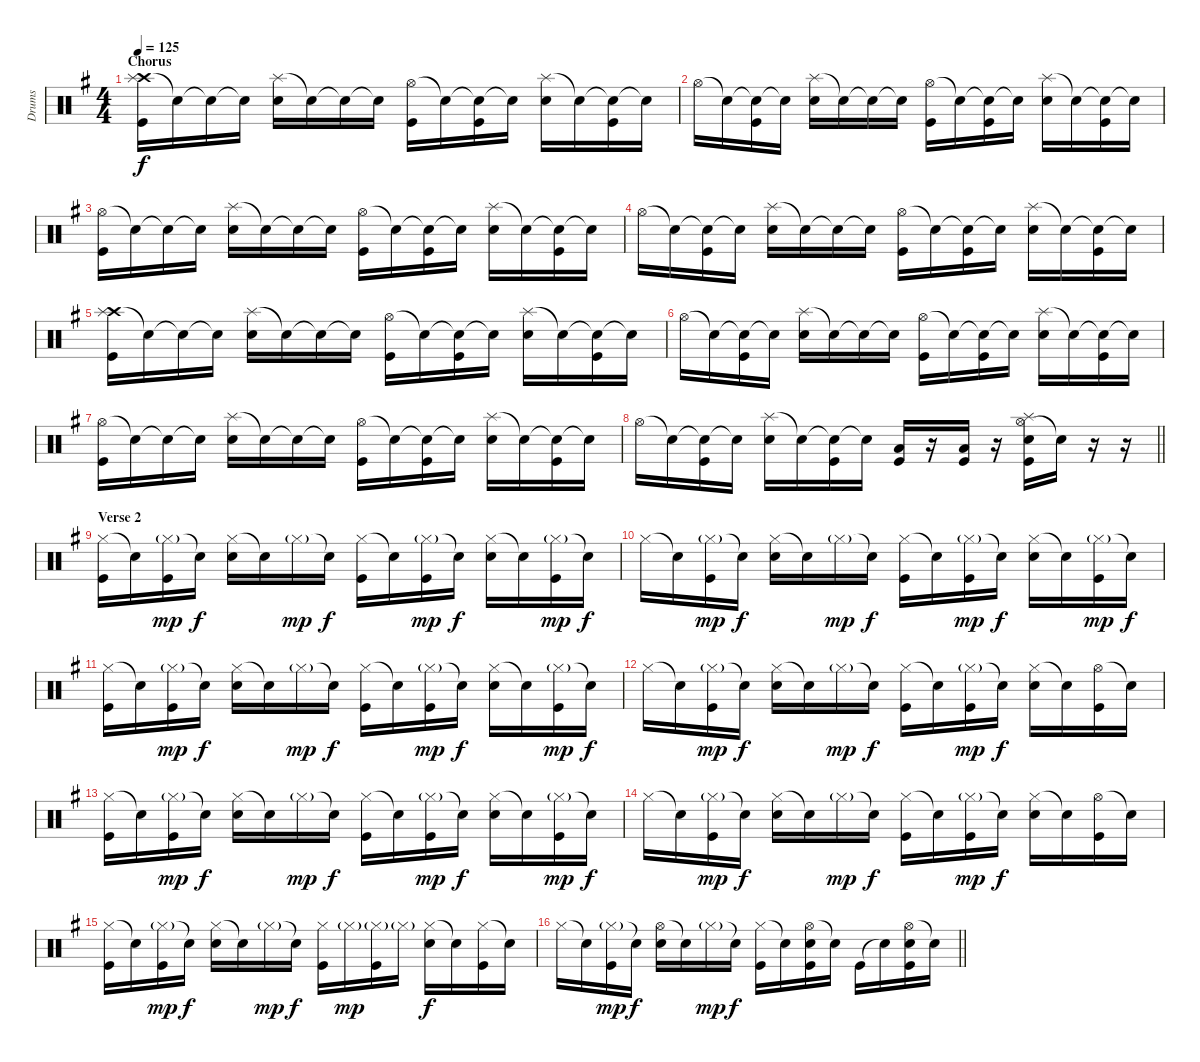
\track ("Drums" "Drums") {instrument percussion}
\staff {score}
\articulation defaults
\ts (4 4)
\section ("" "Chorus")
\tempo 125
\clef neutral
\ks g
("Crash high (hit)" "Splash (hit)" "Kick (hit)").16{dy f} "Snare (hit)"{t}.16 "Snare (hit)"{t}.16 "Snare (hit)"{t}.16 ("Splash (hit)" "Electric Snare (hit)").16 "Snare (hit)"{t}.16 "Snare (hit)"{t}.16 "Snare (hit)"{t}.16 ("Hi-Hat (open)" "Kick (hit)").16 "Snare (hit)"{t}.16 ("Snare (hit)"{t} "Kick (hit)").16 "Snare (hit)"{t}.16 ("Splash (hit)" "Electric Snare (hit)").16 "Snare (hit)"{t}.16 ("Snare (hit)"{t} "Kick (hit)").16 "Snare (hit)"{t}.16 |
"Hi-Hat (open)".16 "Snare (hit)"{t}.16 ("Snare (hit)"{t} "Kick (hit)").16 "Snare (hit)"{t}.16 ("Splash (hit)" "Electric Snare (hit)").16 "Snare (hit)"{t}.16 "Snare (hit)"{t}.16 "Snare (hit)"{t}.16 ("Hi-Hat (open)" "Kick (hit)").16 "Snare (hit)"{t}.16 ("Snare (hit)"{t} "Kick (hit)").16 "Snare (hit)"{t}.16 ("Splash (hit)" "Electric Snare (hit)").16 "Snare (hit)"{t}.16 ("Snare (hit)"{t} "Kick (hit)").16 "Snare (hit)"{t}.16 |
("Hi-Hat (open)" "Kick (hit)").16 "Snare (hit)"{t}.16 "Snare (hit)"{t}.16 "Snare (hit)"{t}.16 ("Splash (hit)" "Electric Snare (hit)").16 "Snare (hit)"{t}.16 "Snare (hit)"{t}.16 "Snare (hit)"{t}.16 ("Hi-Hat (open)" "Kick (hit)").16 "Snare (hit)"{t}.16 ("Snare (hit)"{t} "Kick (hit)").16 "Snare (hit)"{t}.16 ("Splash (hit)" "Electric Snare (hit)").16 "Snare (hit)"{t}.16 ("Snare (hit)"{t} "Kick (hit)").16 "Snare (hit)"{t}.16 |
"Hi-Hat (open)".16 "Snare (hit)"{t}.16 ("Snare (hit)"{t} "Kick (hit)").16 "Snare (hit)"{t}.16 ("Splash (hit)" "Electric Snare (hit)").16 "Snare (hit)"{t}.16 "Snare (hit)"{t}.16 "Snare (hit)"{t}.16 ("Hi-Hat (open)" "Kick (hit)").16 "Snare (hit)"{t}.16 ("Snare (hit)"{t} "Kick (hit)").16 "Snare (hit)"{t}.16 ("Splash (hit)" "Electric Snare (hit)").16 "Snare (hit)"{t}.16 ("Snare (hit)"{t} "Kick (hit)").16 "Snare (hit)"{t}.16 |
("Crash high (hit)" "Splash (hit)" "Kick (hit)").16 "Snare (hit)"{t}.16 "Snare (hit)"{t}.16 "Snare (hit)"{t}.16 ("Splash (hit)" "Electric Snare (hit)").16 "Snare (hit)"{t}.16 "Snare (hit)"{t}.16 "Snare (hit)"{t}.16 ("Hi-Hat (open)" "Kick (hit)").16 "Snare (hit)"{t}.16 ("Snare (hit)"{t} "Kick (hit)").16 "Snare (hit)"{t}.16 ("Splash (hit)" "Electric Snare (hit)").16 "Snare (hit)"{t}.16 ("Snare (hit)"{t} "Kick (hit)").16 "Snare (hit)"{t}.16 |
"Hi-Hat (open)".16 "Snare (hit)"{t}.16 ("Snare (hit)"{t} "Kick (hit)").16 "Snare (hit)"{t}.16 ("Splash (hit)" "Electric Snare (hit)").16 "Snare (hit)"{t}.16 "Snare (hit)"{t}.16 "Snare (hit)"{t}.16 ("Hi-Hat (open)" "Kick (hit)").16 "Snare (hit)"{t}.16 ("Snare (hit)"{t} "Kick (hit)").16 "Snare (hit)"{t}.16 ("Splash (hit)" "Electric Snare (hit)").16 "Snare (hit)"{t}.16 ("Snare (hit)"{t} "Kick (hit)").16 "Snare (hit)"{t}.16 |
("Hi-Hat (open)" "Kick (hit)").16 "Snare (hit)"{t}.16 "Snare (hit)"{t}.16 "Snare (hit)"{t}.16 ("Splash (hit)" "Electric Snare (hit)").16 "Snare (hit)"{t}.16 "Snare (hit)"{t}.16 "Snare (hit)"{t}.16 ("Hi-Hat (open)" "Kick (hit)").16 "Snare (hit)"{t}.16 ("Snare (hit)"{t} "Kick (hit)").16 "Snare (hit)"{t}.16 ("Splash (hit)" "Electric Snare (hit)").16 "Snare (hit)"{t}.16 ("Snare (hit)"{t} "Kick (hit)").16 "Snare (hit)"{t}.16 |
\barLineRight lightlight "Hi-Hat (open)".16 "Snare (hit)"{t}.16
("Snare (hit)"{t} "Kick (hit)").16 "Snare (hit)"{t}.16 ("Splash (hit)" "Electric Snare (hit)").16 "Snare (hit)"{t}.16 ("Snare (hit)"{t} "Kick (hit)").16 "Snare (hit)"{t}.16 ("Low Floor Tom (hit)" "Kick (hit)").16 r.16 ("Low Floor Tom (hit)" "Kick (hit)").16 r.16 ("Hi-Hat (open)" "Splash (hit)" "Electric Snare (hit)" "Kick (hit)").16 "Snare (hit)"{t}.16 r.16 r.16 |
\section ("" "Verse 2")
("Hi-Hat (closed)" "Kick (hit)").16 "Snare (hit)"{t}.16 ("Hi-Hat (closed)"{g} "Kick (hit)").16{dy mp} "Snare (hit)"{t}.16{dy f} ("Hi-Hat (closed)" "Electric Snare (hit)").16 "Snare (hit)"{t}.16 "Hi-Hat (closed)"{g}.16{dy mp} "Snare (hit)"{t}.16{dy f} ("Hi-Hat (closed)" "Kick (hit)").16 "Snare (hit)"{t}.16 ("Hi-Hat (closed)"{g} "Kick (hit)").16{dy mp} "Snare (hit)"{t}.16{dy f} ("Hi-Hat (closed)" "Electric Snare (hit)").16 "Snare (hit)"{t}.16 ("Hi-Hat (closed)"{g} "Kick (hit)").16{dy mp} "Snare (hit)"{t}.16{dy f} |
"Hi-Hat (closed)".16 "Snare (hit)"{t}.16 ("Hi-Hat (closed)"{g} "Kick (hit)").16{dy mp} "Snare (hit)"{t}.16{dy f} ("Hi-Hat (closed)" "Electric Snare (hit)").16 "Snare (hit)"{t}.16 "Hi-Hat (closed)"{g}.16{dy mp} "Snare (hit)"{t}.16{dy f} ("Hi-Hat (closed)" "Kick (hit)").16 "Snare (hit)"{t}.16 ("Hi-Hat (closed)"{g} "Kick (hit)").16{dy mp} "Snare (hit)"{t}.16{dy f} ("Hi-Hat (closed)" "Electric Snare (hit)").16 "Snare (hit)"{t}.16 ("Hi-Hat (closed)"{g} "Kick (hit)").16{dy mp} "Snare (hit)"{t}.16{dy f} |
("Hi-Hat (closed)" "Kick (hit)").16 "Snare (hit)"{t}.16 ("Hi-Hat (closed)"{g} "Kick (hit)").16{dy mp} "Snare (hit)"{t}.16{dy f} ("Hi-Hat (closed)" "Electric Snare (hit)").16 "Snare (hit)"{t}.16 "Hi-Hat (closed)"{g}.16{dy mp} "Snare (hit)"{t}.16{dy f} ("Hi-Hat (closed)" "Kick (hit)").16 "Snare (hit)"{t}.16 ("Hi-Hat (closed)"{g} "Kick (hit)").16{dy mp} "Snare (hit)"{t}.16{dy f} ("Hi-Hat (closed)" "Electric Snare (hit)").16 "Snare (hit)"{t}.16 ("Hi-Hat (closed)"{g} "Kick (hit)").16{dy mp} "Snare (hit)"{t}.16{dy f} |
"Hi-Hat (closed)".16 "Snare (hit)"{t}.16 ("Hi-Hat (closed)"{g} "Kick (hit)").16{dy mp} "Snare (hit)"{t}.16{dy f} ("Hi-Hat (closed)" "Electric Snare (hit)").16 "Snare (hit)"{t}.16 "Hi-Hat (closed)"{g}.16{dy mp} "Snare (hit)"{t}.16{dy f} ("Hi-Hat (closed)" "Kick (hit)").16 "Snare (hit)"{t}.16 ("Hi-Hat (closed)"{g} "Kick (hit)").16{dy mp} "Snare (hit)"{t}.16{dy f} ("Hi-Hat (closed)" "Electric Snare (hit)").16 "Snare (hit)"{t}.16 ("Hi-Hat (open)" "Kick (hit)").16 "Snare (hit)"{t}.16 |
("Hi-Hat (closed)" "Kick (hit)").16 "Snare (hit)"{t}.16 ("Hi-Hat (closed)"{g} "Kick (hit)").16{dy mp} "Snare (hit)"{t}.16{dy f} ("Hi-Hat (closed)" "Electric Snare (hit)").16 "Snare (hit)"{t}.16 "Hi-Hat (closed)"{g}.16{dy mp} "Snare (hit)"{t}.16{dy f} ("Hi-Hat (closed)" "Kick (hit)").16 "Snare (hit)"{t}.16 ("Hi-Hat (closed)"{g} "Kick (hit)").16{dy mp} "Snare (hit)"{t}.16{dy f} ("Hi-Hat (closed)" "Electric Snare (hit)").16 "Snare (hit)"{t}.16 ("Hi-Hat (closed)"{g} "Kick (hit)").16{dy mp} "Snare (hit)"{t}.16{dy f} |
"Hi-Hat (closed)".16 "Snare (hit)"{t}.16 ("Hi-Hat (closed)"{g} "Kick (hit)").16{dy mp} "Snare (hit)"{t}.16{dy f} ("Hi-Hat (closed)" "Electric Snare (hit)").16 "Snare (hit)"{t}.16 "Hi-Hat (closed)"{g}.16{dy mp} "Snare (hit)"{t}.16{dy f} ("Hi-Hat (closed)" "Kick (hit)").16 "Snare (hit)"{t}.16 ("Hi-Hat (closed)"{g} "Kick (hit)").16{dy mp} "Snare (hit)"{t}.16{dy f} ("Hi-Hat (closed)" "Electric Snare (hit)").16 "Snare (hit)"{t}.16 ("Hi-Hat (open)" "Kick (hit)").16 "Snare (hit)"{t}.16 |
("Hi-Hat (closed)" "Kick (hit)").16 "Snare (hit)"{t}.16 ("Hi-Hat (closed)"{g} "Kick (hit)").16{dy mp} "Snare (hit)"{t}.16{dy f} ("Hi-Hat (closed)" "Electric Snare (hit)").16 "Snare (hit)"{t}.16 "Hi-Hat (closed)"{g}.16{dy mp} "Snare (hit)"{t}.16{dy f} ("Hi-Hat (closed)" "Kick (hit)").16 "Hi-Hat (closed)"{g}.16{dy mp} ("Hi-Hat (closed)"{g} "Kick (hit)").16 "Hi-Hat (closed)"{g}.16 ("Hi-Hat (closed)" "Electric Snare (hit)").16{dy f} "Snare (hit)"{t}.16 ("Hi-Hat (closed)" "Kick (hit)").16 "Snare (hit)"{t}.16 |
\barLineRight lightlight "Hi-Hat (closed)".16 "Snare (hit)"{t}.16
("Hi-Hat (closed)"{g} "Kick (hit)").16{dy mp} "Snare (hit)"{t}.16{dy f} ("Hi-Hat (open)" "Electric Snare (hit)").16 "Snare (hit)"{t}.16 "Hi-Hat (closed)"{g}.16{dy mp} "Snare (hit)"{t}.16{dy f} ("Hi-Hat (closed)" "Kick (hit)").16 "Snare (hit)"{t}.16 ("Hi-Hat (open)" "Electric Snare (hit)" "Kick (hit)").16 "Snare (hit)"{t}.16 "Kick (hit)".16 "Snare (hit)"{t}.16 ("Hi-Hat (open)" "Electric Snare (hit)" "Kick (hit)").16 "Snare (hit)"{t}.16
